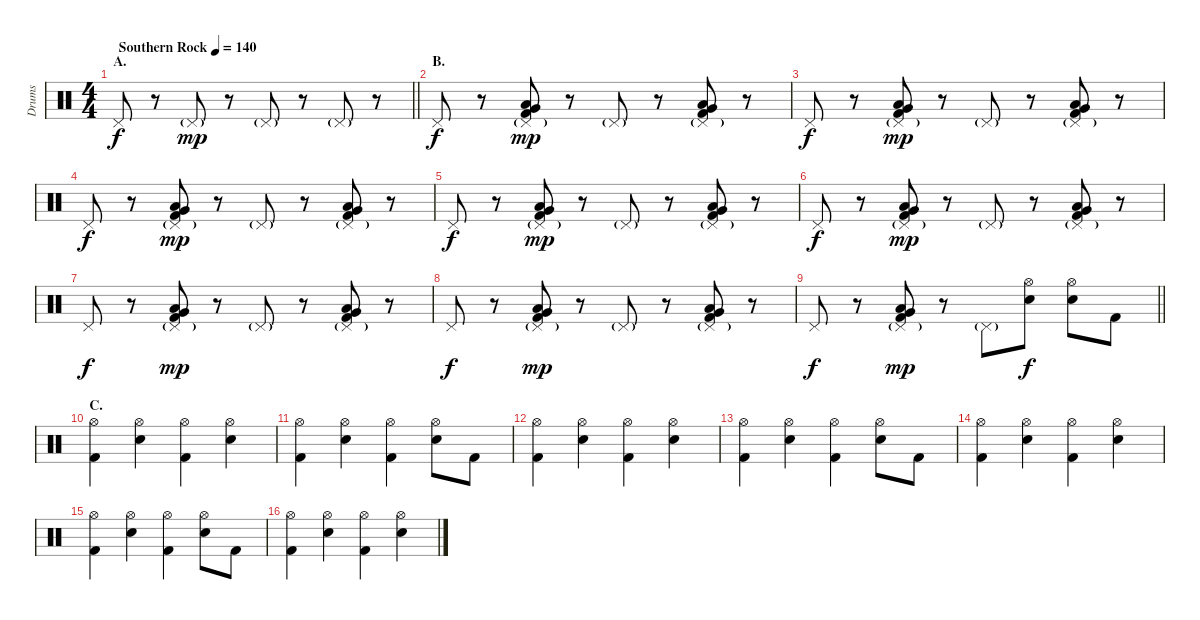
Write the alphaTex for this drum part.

\track ("Drums" "Drums") {instrument percussion}
\staff {score}
\articulation defaults
\ts (4 4)
\section ("" "A.")
\tempo (140 "Southern Rock")
\clef neutral
\barLineRight lightlight
\ks c "Pedal Hi-Hat (hit)".8{dy f}
r.8 "Pedal Hi-Hat (hit)"{g}.8{dy mp} r.8 "Pedal Hi-Hat (hit)"{g}.8 r.8 "Pedal Hi-Hat (hit)"{g}.8 r.8 |
\section ("" "B.")
"Pedal Hi-Hat (hit)".8{dy f} r.8 ("Pedal Hi-Hat (hit)"{g} "Very Low Tom (hit)" "Low Floor Tom (hit)" "Kick (hit) 2").8{dy mp} r.8 "Pedal Hi-Hat (hit)"{g}.8 r.8 ("Pedal Hi-Hat (hit)"{g} "Very Low Tom (hit)" "Low Floor Tom (hit)" "Kick (hit) 2").8 r.8 |
"Pedal Hi-Hat (hit)".8{dy f} r.8 ("Pedal Hi-Hat (hit)"{g} "Very Low Tom (hit)" "Low Floor Tom (hit)" "Kick (hit) 2").8{dy mp} r.8 "Pedal Hi-Hat (hit)"{g}.8 r.8 ("Pedal Hi-Hat (hit)"{g} "Very Low Tom (hit)" "Low Floor Tom (hit)" "Kick (hit) 2").8 r.8 |
"Pedal Hi-Hat (hit)".8{dy f} r.8 ("Pedal Hi-Hat (hit)"{g} "Very Low Tom (hit)" "Low Floor Tom (hit)" "Kick (hit) 2").8{dy mp} r.8 "Pedal Hi-Hat (hit)"{g}.8 r.8 ("Pedal Hi-Hat (hit)"{g} "Very Low Tom (hit)" "Low Floor Tom (hit)" "Kick (hit) 2").8 r.8 |
"Pedal Hi-Hat (hit)".8{dy f} r.8 ("Pedal Hi-Hat (hit)"{g} "Very Low Tom (hit)" "Low Floor Tom (hit)" "Kick (hit) 2").8{dy mp} r.8 "Pedal Hi-Hat (hit)"{g}.8 r.8 ("Pedal Hi-Hat (hit)"{g} "Very Low Tom (hit)" "Low Floor Tom (hit)" "Kick (hit) 2").8 r.8 |
"Pedal Hi-Hat (hit)".8{dy f} r.8 ("Pedal Hi-Hat (hit)"{g} "Very Low Tom (hit)" "Low Floor Tom (hit)" "Kick (hit) 2").8{dy mp} r.8 "Pedal Hi-Hat (hit)"{g}.8 r.8 ("Pedal Hi-Hat (hit)"{g} "Very Low Tom (hit)" "Low Floor Tom (hit)" "Kick (hit) 2").8 r.8 |
"Pedal Hi-Hat (hit)".8{dy f} r.8 ("Pedal Hi-Hat (hit)"{g} "Very Low Tom (hit)" "Low Floor Tom (hit)" "Kick (hit) 2").8{dy mp} r.8 "Pedal Hi-Hat (hit)"{g}.8 r.8 ("Pedal Hi-Hat (hit)"{g} "Very Low Tom (hit)" "Low Floor Tom (hit)" "Kick (hit) 2").8 r.8 |
"Pedal Hi-Hat (hit)".8{dy f} r.8 ("Pedal Hi-Hat (hit)"{g} "Very Low Tom (hit)" "Low Floor Tom (hit)" "Kick (hit) 2").8{dy mp} r.8 "Pedal Hi-Hat (hit)"{g}.8 r.8 ("Pedal Hi-Hat (hit)"{g} "Very Low Tom (hit)" "Low Floor Tom (hit)" "Kick (hit) 2").8 r.8 |
\barLineRight lightlight "Pedal Hi-Hat (hit)".8{dy f}
r.8 ("Pedal Hi-Hat (hit)"{g} "Very Low Tom (hit)" "Low Floor Tom (hit)" "Kick (hit) 2").8{dy mp} r.8 "Pedal Hi-Hat (hit)"{g}.8 ("Hi-Hat (open)" "Electric Snare (hit)").8{dy f} ("Hi-Hat (open)" "Electric Snare (hit)").8 "Kick (hit) 2".8 |
\section ("" "C.")
("Hi-Hat (open)" "Kick (hit) 2").4 ("Hi-Hat (open)" "Electric Snare (hit)").4 ("Hi-Hat (open)" "Kick (hit) 2").4 ("Hi-Hat (open)" "Electric Snare (hit)").4 |
("Hi-Hat (open)" "Kick (hit) 2").4 ("Hi-Hat (open)" "Electric Snare (hit)").4 ("Hi-Hat (open)" "Kick (hit) 2").4 ("Hi-Hat (open)" "Electric Snare (hit)").8 "Kick (hit) 2".8 |
("Hi-Hat (open)" "Kick (hit) 2").4 ("Hi-Hat (open)" "Electric Snare (hit)").4 ("Hi-Hat (open)" "Kick (hit) 2").4 ("Hi-Hat (open)" "Electric Snare (hit)").4 |
("Hi-Hat (open)" "Kick (hit) 2").4 ("Hi-Hat (open)" "Electric Snare (hit)").4 ("Hi-Hat (open)" "Kick (hit) 2").4 ("Hi-Hat (open)" "Electric Snare (hit)").8 "Kick (hit) 2".8 |
("Hi-Hat (open)" "Kick (hit) 2").4 ("Hi-Hat (open)" "Electric Snare (hit)").4 ("Hi-Hat (open)" "Kick (hit) 2").4 ("Hi-Hat (open)" "Electric Snare (hit)").4 |
("Hi-Hat (open)" "Kick (hit) 2").4 ("Hi-Hat (open)" "Electric Snare (hit)").4 ("Hi-Hat (open)" "Kick (hit) 2").4 ("Hi-Hat (open)" "Electric Snare (hit)").8 "Kick (hit) 2".8 |
("Hi-Hat (open)" "Kick (hit) 2").4 ("Hi-Hat (open)" "Electric Snare (hit)").4 ("Hi-Hat (open)" "Kick (hit) 2").4 ("Hi-Hat (open)" "Electric Snare (hit)").4
